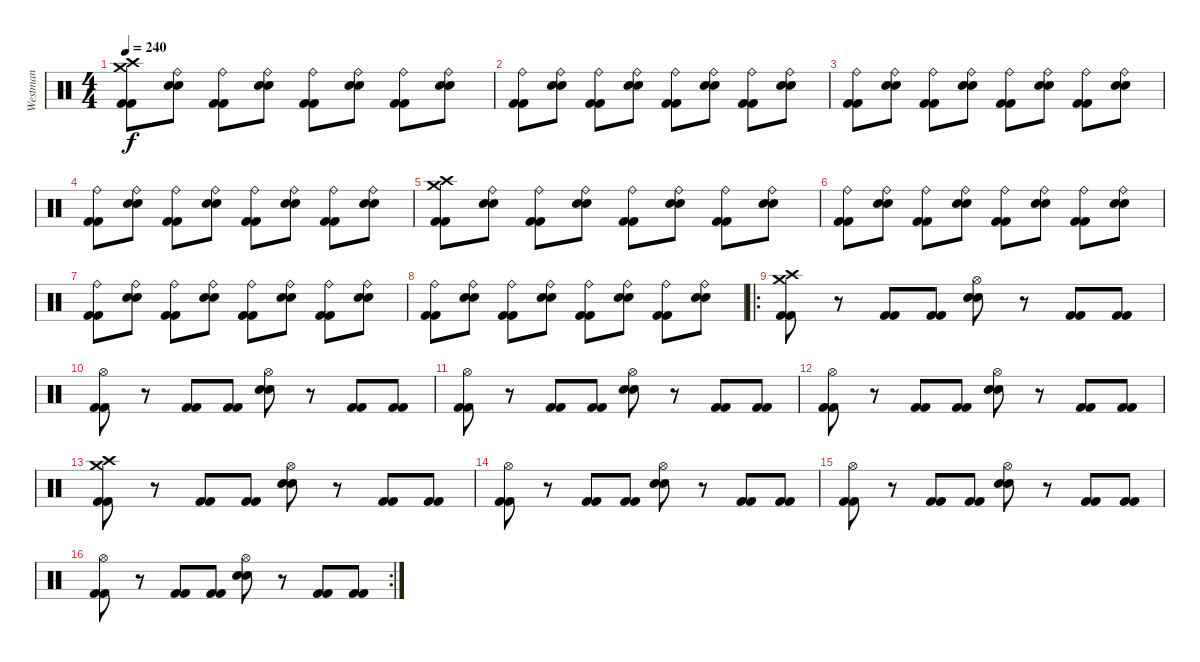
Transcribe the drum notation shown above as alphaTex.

\track ("Westman" "Westman") {instrument percussion}
\staff {score}
\articulation defaults
\ts (4 4)
\tempo 240
\clef neutral
\ks c
("Kick (hit) 2" "Kick (hit) 2" "Crash medium (hit)" "Crash high (hit)").8{dy f} ("Electric Snare (hit)" "Electric Snare (hit)" "Ride (bell)").8 ("Kick (hit) 2" "Kick (hit) 2" "Ride (bell)").8 ("Electric Snare (hit)" "Electric Snare (hit)" "Ride (bell)").8 ("Kick (hit) 2" "Kick (hit) 2" "Ride (bell)").8 ("Electric Snare (hit)" "Electric Snare (hit)" "Ride (bell)").8 ("Kick (hit) 2" "Kick (hit) 2" "Ride (bell)").8 ("Electric Snare (hit)" "Electric Snare (hit)" "Ride (bell)").8 |
("Kick (hit) 2" "Kick (hit) 2" "Ride (bell)").8 ("Electric Snare (hit)" "Electric Snare (hit)" "Ride (bell)").8 ("Kick (hit) 2" "Kick (hit) 2" "Ride (bell)").8 ("Electric Snare (hit)" "Electric Snare (hit)" "Ride (bell)").8 ("Kick (hit) 2" "Kick (hit) 2" "Ride (bell)").8 ("Electric Snare (hit)" "Electric Snare (hit)" "Ride (bell)").8 ("Kick (hit) 2" "Kick (hit) 2" "Ride (bell)").8 ("Electric Snare (hit)" "Electric Snare (hit)" "Ride (bell)").8 |
("Kick (hit) 2" "Kick (hit) 2" "Ride (bell)").8 ("Electric Snare (hit)" "Electric Snare (hit)" "Ride (bell)").8 ("Kick (hit) 2" "Kick (hit) 2" "Ride (bell)").8 ("Electric Snare (hit)" "Electric Snare (hit)" "Ride (bell)").8 ("Kick (hit) 2" "Kick (hit) 2" "Ride (bell)").8 ("Electric Snare (hit)" "Electric Snare (hit)" "Ride (bell)").8 ("Kick (hit) 2" "Kick (hit) 2" "Ride (bell)").8 ("Electric Snare (hit)" "Electric Snare (hit)" "Ride (bell)").8 |
("Kick (hit) 2" "Kick (hit) 2" "Ride (bell)").8 ("Electric Snare (hit)" "Electric Snare (hit)" "Ride (bell)").8 ("Kick (hit) 2" "Kick (hit) 2" "Ride (bell)").8 ("Electric Snare (hit)" "Electric Snare (hit)" "Ride (bell)").8 ("Kick (hit) 2" "Kick (hit) 2" "Ride (bell)").8 ("Electric Snare (hit)" "Electric Snare (hit)" "Ride (bell)").8 ("Kick (hit) 2" "Kick (hit) 2" "Ride (bell)").8 ("Electric Snare (hit)" "Electric Snare (hit)" "Ride (bell)").8 |
("Kick (hit) 2" "Kick (hit) 2" "Crash medium (hit)" "Crash high (hit)").8 ("Electric Snare (hit)" "Electric Snare (hit)" "Ride (bell)").8 ("Kick (hit) 2" "Kick (hit) 2" "Ride (bell)").8 ("Electric Snare (hit)" "Electric Snare (hit)" "Ride (bell)").8 ("Kick (hit) 2" "Kick (hit) 2" "Ride (bell)").8 ("Electric Snare (hit)" "Electric Snare (hit)" "Ride (bell)").8 ("Kick (hit) 2" "Kick (hit) 2" "Ride (bell)").8 ("Electric Snare (hit)" "Electric Snare (hit)" "Ride (bell)").8 |
("Kick (hit) 2" "Kick (hit) 2" "Ride (bell)").8 ("Electric Snare (hit)" "Electric Snare (hit)" "Ride (bell)").8 ("Kick (hit) 2" "Kick (hit) 2" "Ride (bell)").8 ("Electric Snare (hit)" "Electric Snare (hit)" "Ride (bell)").8 ("Kick (hit) 2" "Kick (hit) 2" "Ride (bell)").8 ("Electric Snare (hit)" "Electric Snare (hit)" "Ride (bell)").8 ("Kick (hit) 2" "Kick (hit) 2" "Ride (bell)").8 ("Electric Snare (hit)" "Electric Snare (hit)" "Ride (bell)").8 |
("Kick (hit) 2" "Kick (hit) 2" "Ride (bell)").8 ("Electric Snare (hit)" "Electric Snare (hit)" "Ride (bell)").8 ("Kick (hit) 2" "Kick (hit) 2" "Ride (bell)").8 ("Electric Snare (hit)" "Electric Snare (hit)" "Ride (bell)").8 ("Kick (hit) 2" "Kick (hit) 2" "Ride (bell)").8 ("Electric Snare (hit)" "Electric Snare (hit)" "Ride (bell)").8 ("Kick (hit) 2" "Kick (hit) 2" "Ride (bell)").8 ("Electric Snare (hit)" "Electric Snare (hit)" "Ride (bell)").8 |
("Kick (hit) 2" "Kick (hit) 2" "Ride (bell)").8 ("Electric Snare (hit)" "Electric Snare (hit)" "Ride (bell)").8 ("Kick (hit) 2" "Kick (hit) 2" "Ride (bell)").8 ("Electric Snare (hit)" "Electric Snare (hit)" "Ride (bell)").8 ("Kick (hit) 2" "Kick (hit) 2" "Ride (bell)").8 ("Electric Snare (hit)" "Electric Snare (hit)" "Ride (bell)").8 ("Kick (hit) 2" "Kick (hit) 2" "Ride (bell)").8 ("Electric Snare (hit)" "Electric Snare (hit)" "Ride (bell)").8 |
\ro
("Kick (hit) 2" "Kick (hit) 2" "Crash high (hit)" "Crash medium (hit)").8 r.8 ("Kick (hit) 2" "Kick (hit) 2").8 ("Kick (hit) 2" "Kick (hit) 2").8 ("Snare (hit) 2" "Electric Snare (hit)" "Hi-Hat (open)").8 r.8 ("Kick (hit) 2" "Kick (hit) 2").8 ("Kick (hit) 2" "Kick (hit) 2").8 |
("Kick (hit) 2" "Kick (hit) 2" "Hi-Hat (open)").8 r.8 ("Kick (hit) 2" "Kick (hit) 2").8 ("Kick (hit) 2" "Kick (hit) 2").8 ("Snare (hit) 2" "Electric Snare (hit)" "Hi-Hat (open)").8 r.8 ("Kick (hit) 2" "Kick (hit) 2").8 ("Kick (hit) 2" "Kick (hit) 2").8 |
("Kick (hit) 2" "Kick (hit) 2" "Hi-Hat (open)").8 r.8 ("Kick (hit) 2" "Kick (hit) 2").8 ("Kick (hit) 2" "Kick (hit) 2").8 ("Snare (hit) 2" "Electric Snare (hit)" "Hi-Hat (open)").8 r.8 ("Kick (hit) 2" "Kick (hit) 2").8 ("Kick (hit) 2" "Kick (hit) 2").8 |
("Kick (hit) 2" "Kick (hit) 2" "Hi-Hat (open)").8 r.8 ("Kick (hit) 2" "Kick (hit) 2").8 ("Kick (hit) 2" "Kick (hit) 2").8 ("Snare (hit) 2" "Electric Snare (hit)" "Hi-Hat (open)").8 r.8 ("Kick (hit) 2" "Kick (hit) 2").8 ("Kick (hit) 2" "Kick (hit) 2").8 |
("Kick (hit) 2" "Kick (hit) 2" "Crash high (hit)" "Crash medium (hit)").8 r.8 ("Kick (hit) 2" "Kick (hit) 2").8 ("Kick (hit) 2" "Kick (hit) 2").8 ("Snare (hit) 2" "Electric Snare (hit)" "Hi-Hat (open)").8 r.8 ("Kick (hit) 2" "Kick (hit) 2").8 ("Kick (hit) 2" "Kick (hit) 2").8 |
("Kick (hit) 2" "Kick (hit) 2" "Hi-Hat (open)").8 r.8 ("Kick (hit) 2" "Kick (hit) 2").8 ("Kick (hit) 2" "Kick (hit) 2").8 ("Snare (hit) 2" "Electric Snare (hit)" "Hi-Hat (open)").8 r.8 ("Kick (hit) 2" "Kick (hit) 2").8 ("Kick (hit) 2" "Kick (hit) 2").8 |
("Kick (hit) 2" "Kick (hit) 2" "Hi-Hat (open)").8 r.8 ("Kick (hit) 2" "Kick (hit) 2").8 ("Kick (hit) 2" "Kick (hit) 2").8 ("Snare (hit) 2" "Electric Snare (hit)" "Hi-Hat (open)").8 r.8 ("Kick (hit) 2" "Kick (hit) 2").8 ("Kick (hit) 2" "Kick (hit) 2").8 |
\rc 2
("Kick (hit) 2" "Kick (hit) 2" "Hi-Hat (open)").8 r.8 ("Kick (hit) 2" "Kick (hit) 2").8 ("Kick (hit) 2" "Kick (hit) 2").8 ("Snare (hit) 2" "Electric Snare (hit)" "Hi-Hat (open)").8 r.8 ("Kick (hit) 2" "Kick (hit) 2").8 ("Kick (hit) 2" "Kick (hit) 2").8
